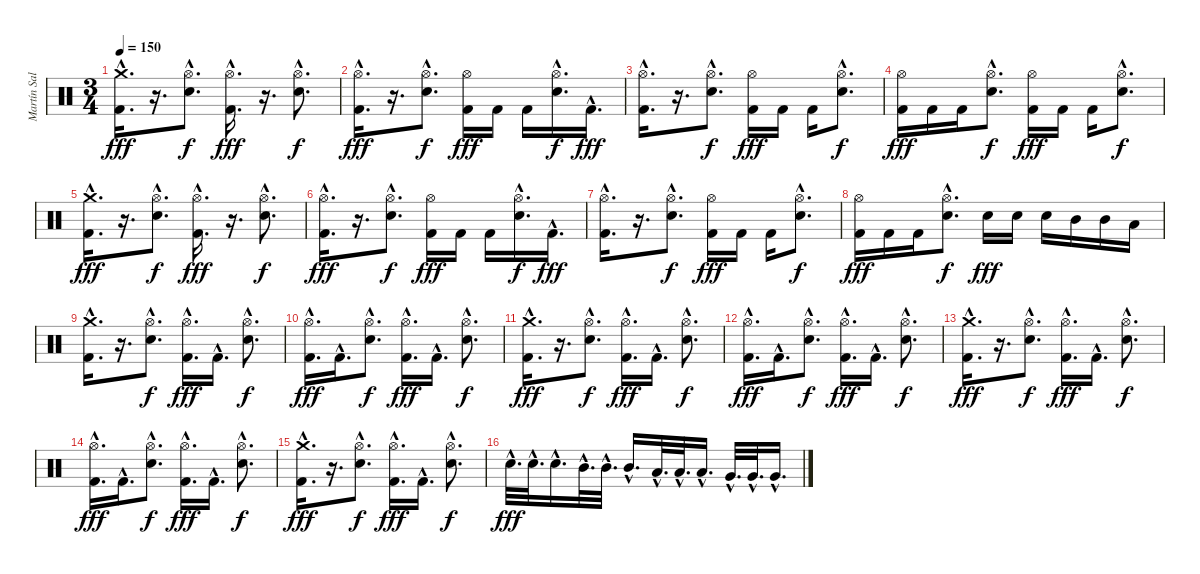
\track ("Martín Salariato" "Martín Sal") {instrument percussion}
\staff {score}
\articulation defaults
\ts (3 4)
\tempo 150
\clef neutral
\ks c
("Crash medium (hit)"{hac} "Kick (hit) 2"{hac}).16{d dy fff} r.16{d} ("Hi-Hat (open)"{hac} "Snare (hit) 2"{hac}).8{d dy f} ("Hi-Hat (open)"{hac} "Kick (hit) 2"{hac}).16{d dy fff} r.16{d} ("Hi-Hat (open)"{hac} "Snare (hit) 2"{hac}).8{d dy f} |
("Hi-Hat (open)"{hac} "Kick (hit) 2"{hac}).16{d dy fff} r.16{d} ("Hi-Hat (open)"{hac} "Snare (hit) 2"{hac}).8{d dy f} ("Hi-Hat (open)" "Kick (hit) 2").16{dy fff} "Kick (hit) 2".16 "Kick (hit) 2".16 ("Hi-Hat (open)"{hac} "Snare (hit) 2"{hac}).16{d dy f} "Kick (hit) 2"{hac}.16{d dy fff} |
("Hi-Hat (open)"{hac} "Kick (hit) 2"{hac}).16{d} r.16{d} ("Hi-Hat (open)"{hac} "Snare (hit) 2"{hac}).8{d dy f} ("Hi-Hat (open)" "Kick (hit) 2").16{dy fff} "Kick (hit) 2".16 "Kick (hit) 2".16 ("Hi-Hat (open)"{hac} "Snare (hit) 2"{hac}).8{d dy f} |
("Hi-Hat (open)" "Kick (hit) 2").16{dy fff} "Kick (hit) 2".16 "Kick (hit) 2".16 ("Hi-Hat (open)"{hac} "Snare (hit) 2"{hac}).8{d dy f} ("Hi-Hat (open)" "Kick (hit) 2").16{dy fff} "Kick (hit) 2".16 "Kick (hit) 2".16 ("Hi-Hat (open)"{hac} "Snare (hit) 2"{hac}).8{d dy f} |
("Crash medium (hit)"{hac} "Kick (hit) 2"{hac}).16{d dy fff} r.16{d} ("Hi-Hat (open)"{hac} "Snare (hit) 2"{hac}).8{d dy f} ("Hi-Hat (open)"{hac} "Kick (hit) 2"{hac}).16{d dy fff} r.16{d} ("Hi-Hat (open)"{hac} "Snare (hit) 2"{hac}).8{d dy f} |
("Hi-Hat (open)"{hac} "Kick (hit) 2"{hac}).16{d dy fff} r.16{d} ("Hi-Hat (open)"{hac} "Snare (hit) 2"{hac}).8{d dy f} ("Hi-Hat (open)" "Kick (hit) 2").16{dy fff} "Kick (hit) 2".16 "Kick (hit) 2".16 ("Hi-Hat (open)"{hac} "Snare (hit) 2"{hac}).16{d dy f} "Kick (hit) 2"{hac}.16{d dy fff} |
("Hi-Hat (open)"{hac} "Kick (hit) 2"{hac}).16{d} r.16{d} ("Hi-Hat (open)"{hac} "Snare (hit) 2"{hac}).8{d dy f} ("Hi-Hat (open)" "Kick (hit) 2").16{dy fff} "Kick (hit) 2".16 "Kick (hit) 2".16 ("Hi-Hat (open)"{hac} "Snare (hit) 2"{hac}).8{d dy f} |
("Hi-Hat (open)" "Kick (hit) 2").16{dy fff} "Kick (hit) 2".16 "Kick (hit) 2".16 ("Hi-Hat (open)"{hac} "Snare (hit) 2"{hac}).8{d dy f} "Snare (hit) 2".16{dy fff} "Snare (hit) 2".16 "Snare (hit) 2".16 "Mid Tom (hit)".16 "Mid Tom (hit)".16 "Low Tom (hit)".16 |
("Crash medium (hit)"{hac} "Kick (hit) 2"{hac}).16{d} r.16{d} ("Hi-Hat (open)"{hac} "Snare (hit) 2"{hac}).8{d dy f} ("Hi-Hat (open)"{hac} "Kick (hit) 2"{hac}).16{d dy fff} "Kick (hit) 2"{hac}.16{d} ("Hi-Hat (open)"{hac} "Snare (hit) 2"{hac}).8{d dy f} |
("Hi-Hat (open)"{hac} "Kick (hit) 2"{hac}).16{d dy fff} "Kick (hit) 2"{hac}.16{d} ("Hi-Hat (open)"{hac} "Snare (hit) 2"{hac}).8{d dy f} ("Hi-Hat (open)"{hac} "Kick (hit) 2"{hac}).16{d dy fff} "Kick (hit) 2"{hac}.16{d} ("Hi-Hat (open)"{hac} "Snare (hit) 2"{hac}).8{d dy f} |
("Crash medium (hit)"{hac} "Kick (hit) 2"{hac}).16{d dy fff} r.16{d} ("Hi-Hat (open)"{hac} "Snare (hit) 2"{hac}).8{d dy f} ("Hi-Hat (open)"{hac} "Kick (hit) 2"{hac}).16{d dy fff} "Kick (hit) 2"{hac}.16{d} ("Hi-Hat (open)"{hac} "Snare (hit) 2"{hac}).8{d dy f} |
("Hi-Hat (open)"{hac} "Kick (hit) 2"{hac}).16{d dy fff} "Kick (hit) 2"{hac}.16{d} ("Hi-Hat (open)"{hac} "Snare (hit) 2"{hac}).8{d dy f} ("Hi-Hat (open)"{hac} "Kick (hit) 2"{hac}).16{d dy fff} "Kick (hit) 2"{hac}.16{d} ("Hi-Hat (open)"{hac} "Snare (hit) 2"{hac}).8{d dy f} |
("Crash medium (hit)"{hac} "Kick (hit) 2"{hac}).16{d dy fff} r.16{d} ("Hi-Hat (open)"{hac} "Snare (hit) 2"{hac}).8{d dy f} ("Hi-Hat (open)"{hac} "Kick (hit) 2"{hac}).16{d dy fff} "Kick (hit) 2"{hac}.16{d} ("Hi-Hat (open)"{hac} "Snare (hit) 2"{hac}).8{d dy f} |
("Hi-Hat (open)"{hac} "Kick (hit) 2"{hac}).16{d dy fff} "Kick (hit) 2"{hac}.16{d} ("Hi-Hat (open)"{hac} "Snare (hit) 2"{hac}).8{d dy f} ("Hi-Hat (open)"{hac} "Kick (hit) 2"{hac}).16{d dy fff} "Kick (hit) 2"{hac}.16{d} ("Hi-Hat (open)"{hac} "Snare (hit) 2"{hac}).8{d dy f} |
("Crash medium (hit)"{hac} "Kick (hit) 2"{hac}).16{d dy fff} r.16{d} ("Hi-Hat (open)"{hac} "Snare (hit) 2"{hac}).8{d dy f} ("Hi-Hat (open)"{hac} "Kick (hit) 2"{hac}).16{d dy fff} "Kick (hit) 2"{hac}.16{d} ("Hi-Hat (open)"{hac} "Snare (hit) 2"{hac}).8{d dy f} |
"Snare (hit) 2"{hac}.32{d dy fff} "Snare (hit) 2"{hac}.32{d} "Snare (hit) 2"{hac}.16{d} "Mid Tom (hit)"{hac}.32{d} "Mid Tom (hit)"{hac}.32{d} "Mid Tom (hit)"{hac}.16{d} "Low Tom (hit)"{hac}.32{d} "Low Tom (hit)"{hac}.32{d} "Low Tom (hit)"{hac}.16{d} "Very Low Tom (hit)"{hac}.32{d} "Very Low Tom (hit)"{hac}.32{d} "Very Low Tom (hit)"{hac}.16{d}
